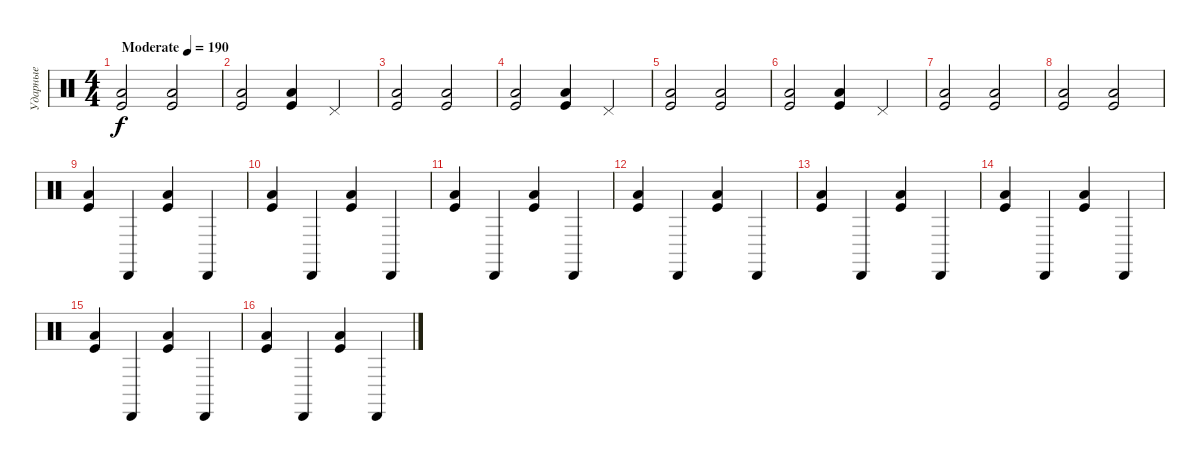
\track ("Ударные" "Ударные") {instrument percussion}
\staff {score}
\articulation defaults
\ts (4 4)
\tempo (190 "Moderate")
\clef neutral
\ks c
("Low Tom (hit)" "Kick (hit)").2{dy f} ("Low Tom (hit)" "Kick (hit)").2 |
("Low Tom (hit)" "Kick (hit)").2 ("Low Tom (hit)" "Kick (hit)").4 "Pedal Hi-Hat (hit)".4 |
("Low Tom (hit)" "Kick (hit)").2 ("Low Tom (hit)" "Kick (hit)").2 |
("Low Tom (hit)" "Kick (hit)").2 ("Low Tom (hit)" "Kick (hit)").4 "Pedal Hi-Hat (hit)".4 |
("Low Tom (hit)" "Kick (hit)").2 ("Low Tom (hit)" "Kick (hit)").2 |
("Low Tom (hit)" "Kick (hit)").2 ("Low Tom (hit)" "Kick (hit)").4 "Pedal Hi-Hat (hit)".4 |
("Low Tom (hit)" "Kick (hit)").2 ("Low Tom (hit)" "Kick (hit)").2 |
("Low Tom (hit)" "Kick (hit)").2 ("Low Tom (hit)" "Kick (hit)").2 |
("Low Tom (hit)" "Kick (hit)").4 "Cabasa (hit)".4 ("Low Tom (hit)" "Kick (hit)").4 "Cabasa (hit)".4 |
("Low Tom (hit)" "Kick (hit)").4 "Cabasa (hit)".4 ("Low Tom (hit)" "Kick (hit)").4 "Cabasa (hit)".4 |
("Low Tom (hit)" "Kick (hit)").4 "Cabasa (hit)".4 ("Low Tom (hit)" "Kick (hit)").4 "Cabasa (hit)".4 |
("Low Tom (hit)" "Kick (hit)").4 "Cabasa (hit)".4 ("Low Tom (hit)" "Kick (hit)").4 "Cabasa (hit)".4 |
("Low Tom (hit)" "Kick (hit)").4 "Cabasa (hit)".4 ("Low Tom (hit)" "Kick (hit)").4 "Cabasa (hit)".4 |
("Low Tom (hit)" "Kick (hit)").4 "Cabasa (hit)".4 ("Low Tom (hit)" "Kick (hit)").4 "Cabasa (hit)".4 |
("Low Tom (hit)" "Kick (hit)").4 "Cabasa (hit)".4 ("Low Tom (hit)" "Kick (hit)").4 "Cabasa (hit)".4 |
("Low Tom (hit)" "Kick (hit)").4 "Cabasa (hit)".4 ("Low Tom (hit)" "Kick (hit)").4 "Cabasa (hit)".4
